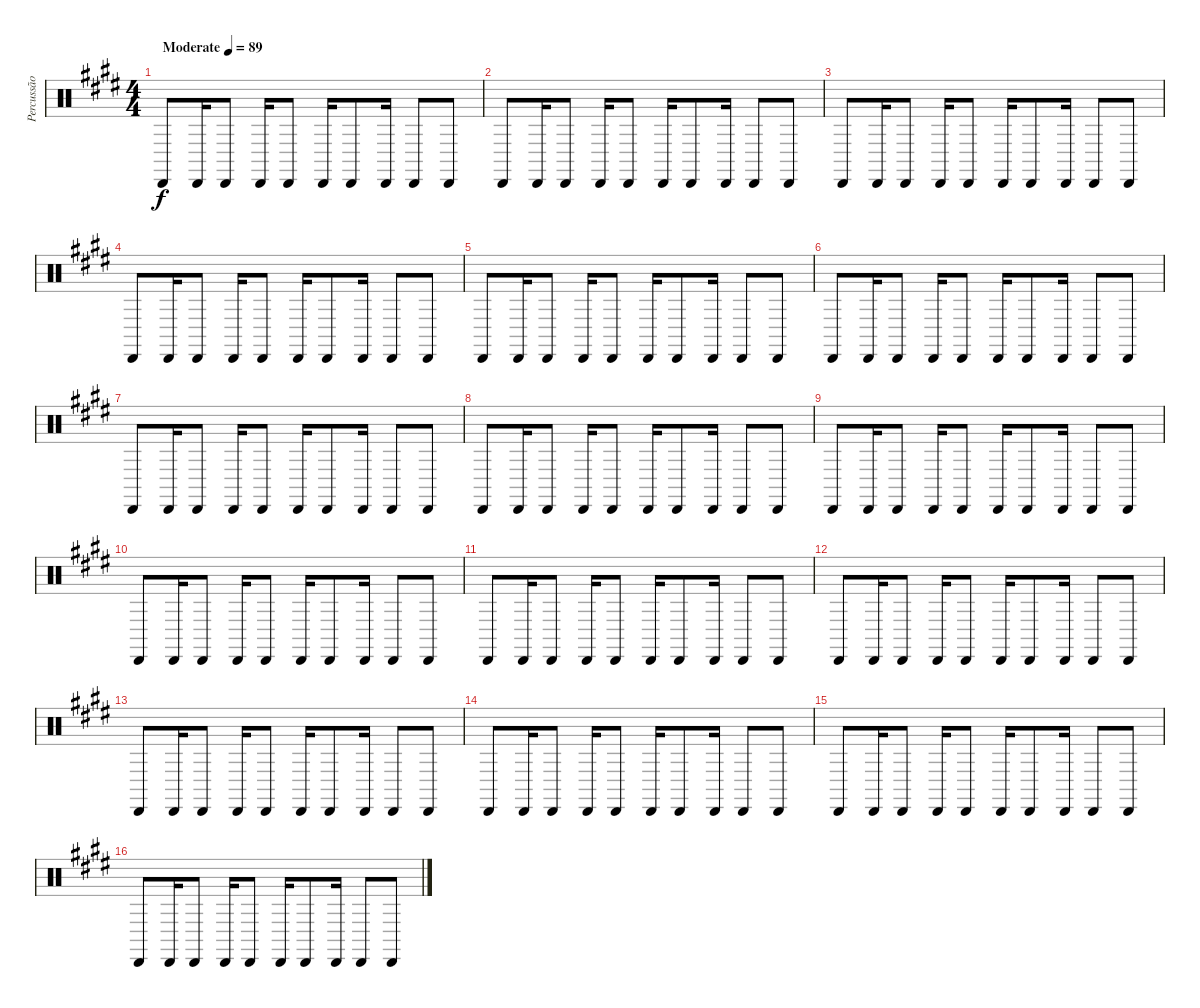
\track ("Percussão" "Percussão") {instrument percussion}
\staff {score}
\articulation defaults
\ts (4 4)
\tempo (89 "Moderate")
\clef neutral
\ks e "Cabasa (hit)".8{dy f} "Cabasa (hit)".16 "Cabasa (hit)".8 "Cabasa (hit)".16 "Cabasa (hit)".8 "Cabasa (hit)".16 "Cabasa (hit)".8 "Cabasa (hit)".16 "Cabasa (hit)".8 "Cabasa (hit)".8
|
"Cabasa (hit)".8 "Cabasa (hit)".16 "Cabasa (hit)".8 "Cabasa (hit)".16 "Cabasa (hit)".8 "Cabasa (hit)".16 "Cabasa (hit)".8 "Cabasa (hit)".16 "Cabasa (hit)".8 "Cabasa (hit)".8 |
"Cabasa (hit)".8 "Cabasa (hit)".16 "Cabasa (hit)".8 "Cabasa (hit)".16 "Cabasa (hit)".8 "Cabasa (hit)".16 "Cabasa (hit)".8 "Cabasa (hit)".16 "Cabasa (hit)".8 "Cabasa (hit)".8 |
"Cabasa (hit)".8 "Cabasa (hit)".16 "Cabasa (hit)".8 "Cabasa (hit)".16 "Cabasa (hit)".8 "Cabasa (hit)".16 "Cabasa (hit)".8 "Cabasa (hit)".16 "Cabasa (hit)".8 "Cabasa (hit)".8 |
"Cabasa (hit)".8 "Cabasa (hit)".16 "Cabasa (hit)".8 "Cabasa (hit)".16 "Cabasa (hit)".8 "Cabasa (hit)".16 "Cabasa (hit)".8 "Cabasa (hit)".16 "Cabasa (hit)".8 "Cabasa (hit)".8 |
"Cabasa (hit)".8 "Cabasa (hit)".16 "Cabasa (hit)".8 "Cabasa (hit)".16 "Cabasa (hit)".8 "Cabasa (hit)".16 "Cabasa (hit)".8 "Cabasa (hit)".16 "Cabasa (hit)".8 "Cabasa (hit)".8 |
"Cabasa (hit)".8 "Cabasa (hit)".16 "Cabasa (hit)".8 "Cabasa (hit)".16 "Cabasa (hit)".8 "Cabasa (hit)".16 "Cabasa (hit)".8 "Cabasa (hit)".16 "Cabasa (hit)".8 "Cabasa (hit)".8 |
"Cabasa (hit)".8 "Cabasa (hit)".16 "Cabasa (hit)".8 "Cabasa (hit)".16 "Cabasa (hit)".8 "Cabasa (hit)".16 "Cabasa (hit)".8 "Cabasa (hit)".16 "Cabasa (hit)".8 "Cabasa (hit)".8 |
"Cabasa (hit)".8 "Cabasa (hit)".16 "Cabasa (hit)".8 "Cabasa (hit)".16 "Cabasa (hit)".8 "Cabasa (hit)".16 "Cabasa (hit)".8 "Cabasa (hit)".16 "Cabasa (hit)".8 "Cabasa (hit)".8 |
"Cabasa (hit)".8 "Cabasa (hit)".16 "Cabasa (hit)".8 "Cabasa (hit)".16 "Cabasa (hit)".8 "Cabasa (hit)".16 "Cabasa (hit)".8 "Cabasa (hit)".16 "Cabasa (hit)".8 "Cabasa (hit)".8 |
"Cabasa (hit)".8 "Cabasa (hit)".16 "Cabasa (hit)".8 "Cabasa (hit)".16 "Cabasa (hit)".8 "Cabasa (hit)".16 "Cabasa (hit)".8 "Cabasa (hit)".16 "Cabasa (hit)".8 "Cabasa (hit)".8 |
"Cabasa (hit)".8 "Cabasa (hit)".16 "Cabasa (hit)".8 "Cabasa (hit)".16 "Cabasa (hit)".8 "Cabasa (hit)".16 "Cabasa (hit)".8 "Cabasa (hit)".16 "Cabasa (hit)".8 "Cabasa (hit)".8 |
"Cabasa (hit)".8 "Cabasa (hit)".16 "Cabasa (hit)".8 "Cabasa (hit)".16 "Cabasa (hit)".8 "Cabasa (hit)".16 "Cabasa (hit)".8 "Cabasa (hit)".16 "Cabasa (hit)".8 "Cabasa (hit)".8 |
"Cabasa (hit)".8 "Cabasa (hit)".16 "Cabasa (hit)".8 "Cabasa (hit)".16 "Cabasa (hit)".8 "Cabasa (hit)".16 "Cabasa (hit)".8 "Cabasa (hit)".16 "Cabasa (hit)".8 "Cabasa (hit)".8 |
"Cabasa (hit)".8 "Cabasa (hit)".16 "Cabasa (hit)".8 "Cabasa (hit)".16 "Cabasa (hit)".8 "Cabasa (hit)".16 "Cabasa (hit)".8 "Cabasa (hit)".16 "Cabasa (hit)".8 "Cabasa (hit)".8 |
"Cabasa (hit)".8 "Cabasa (hit)".16 "Cabasa (hit)".8 "Cabasa (hit)".16 "Cabasa (hit)".8 "Cabasa (hit)".16 "Cabasa (hit)".8 "Cabasa (hit)".16 "Cabasa (hit)".8 "Cabasa (hit)".8
